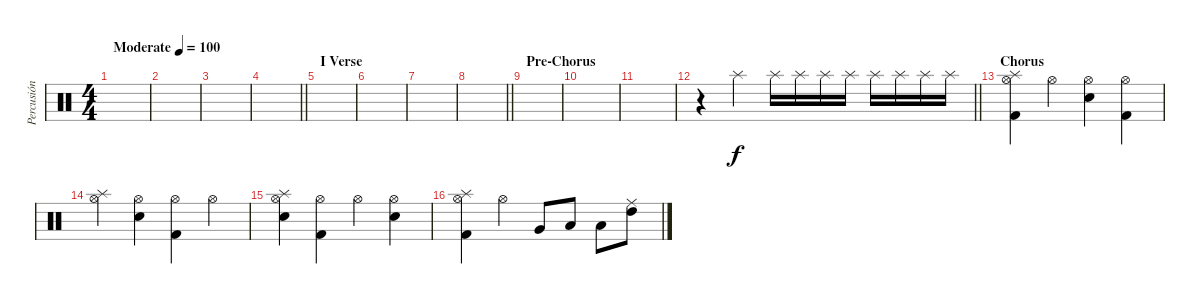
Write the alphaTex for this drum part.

\track ("Percusión" "Percusión") {instrument percussion}
\staff {score}
\articulation defaults
\ts (4 4)
\tempo (100 "Moderate")
\clef neutral
\ks c
|
|
|
\barLineRight lightlight
|
\section ("" "I Verse")
|
|
|
\barLineRight lightlight
|
\section ("" "Pre-Chorus")
|
|
|
\barLineRight lightlight
r.4 "Splash (hit)".4 "Splash (hit)".16{volume 13} "Splash (hit)".16 "Splash (hit)".16 "Splash (hit)".16 "Splash (hit)".16 "Splash (hit)".16 "Splash (hit)".16 "Splash (hit)".16 |
\section ("" "Chorus")
("Splash (hit)" "Hi-Hat (open)" "Kick (hit) 2").4 "Hi-Hat (open)".4 ("Snare (hit) 2" "Hi-Hat (open)").4 ("Hi-Hat (open)" "Kick (hit) 2").4 |
("Splash (hit)" "Hi-Hat (open)").4 ("Snare (hit) 2" "Hi-Hat (open)").4 ("Hi-Hat (open)" "Kick (hit) 2").4 "Hi-Hat (open)".4 |
("Splash (hit)" "Snare (hit) 2" "Hi-Hat (open)").4 ("Hi-Hat (open)" "Kick (hit) 2").4 "Hi-Hat (open)".4 ("Snare (hit) 2" "Hi-Hat (open)").4 |
("Splash (hit)" "Hi-Hat (open)" "Kick (hit) 2").4 "Hi-Hat (open)".4 "Very Low Tom (hit)".8 "Low Floor Tom (hit)".8 "Low Tom (hit)".8 ("High Tom (hit)" "Ride (middle)").8
